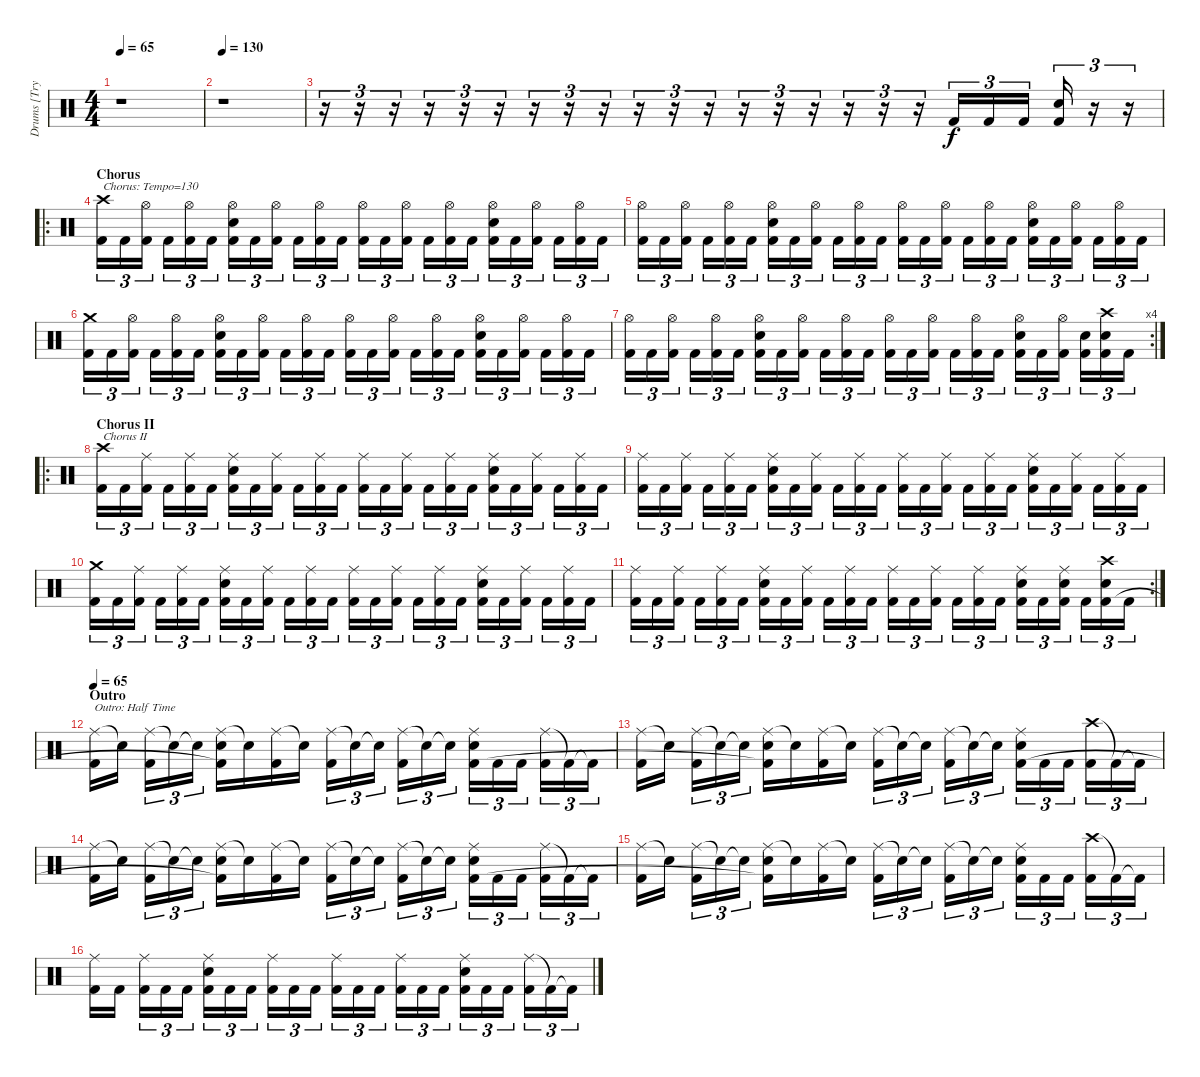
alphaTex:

\track ("Drums [Trym]" "Drums [Try") {instrument percussion}
\staff {score}
\articulation defaults
\ts (4 4)
\tempo 65
\clef neutral
\ks c
r.1{dy f} |
\tempo 130
r.1 |
r.16{tu (3 2)} r.16{tu (3 2)} r.16{tu (3 2)} r.16{tu (3 2)} r.16{tu (3 2)} r.16{tu (3 2)} r.16{tu (3 2)} r.16{tu (3 2)} r.16{tu (3 2)} r.16{tu (3 2)} r.16{tu (3 2)} r.16{tu (3 2)} r.16{tu (3 2)} r.16{tu (3 2)} r.16{tu (3 2)} r.16{tu (3 2)} r.16{tu (3 2)} r.16{tu (3 2)} "Kick (hit) 2".16{tu (3 2)} "Kick (hit) 2".16{tu (3 2)} "Kick (hit) 2".16{tu (3 2)} ("Electric Snare (hit)" "Kick (hit) 2").16{tu (3 2)} r.16{tu (3 2)} r.16{tu (3 2)} |
\ro
\section ("" "Chorus")
("Crash high (hit)" "Kick (hit) 2").16{tu (3 2) txt "Chorus: Tempo=130"} "Kick (hit) 2".16{tu (3 2)} ("Hi-Hat (open)" "Kick (hit) 2").16{tu (3 2)} "Kick (hit) 2".16{tu (3 2)} ("Hi-Hat (open)" "Kick (hit) 2").16{tu (3 2)} "Kick (hit) 2".16{tu (3 2)} ("Hi-Hat (open)" "Electric Snare (hit)" "Kick (hit) 2").16{tu (3 2)} "Kick (hit) 2".16{tu (3 2)} ("Hi-Hat (open)" "Kick (hit) 2").16{tu (3 2)} "Kick (hit) 2".16{tu (3 2)} ("Hi-Hat (open)" "Kick (hit) 2").16{tu (3 2)} "Kick (hit) 2".16{tu (3 2)} ("Hi-Hat (open)" "Kick (hit) 2").16{tu (3 2)} "Kick (hit) 2".16{tu (3 2)} ("Hi-Hat (open)" "Kick (hit) 2").16{tu (3 2)} "Kick (hit) 2".16{tu (3 2)} ("Hi-Hat (open)" "Kick (hit) 2").16{tu (3 2)} "Kick (hit) 2".16{tu (3 2)} ("Hi-Hat (open)" "Electric Snare (hit)" "Kick (hit) 2").16{tu (3 2)} "Kick (hit) 2".16{tu (3 2)} ("Hi-Hat (open)" "Kick (hit) 2").16{tu (3 2)} "Kick (hit) 2".16{tu (3 2)} ("Hi-Hat (open)" "Kick (hit) 2").16{tu (3 2)} "Kick (hit) 2".16{tu (3 2)} |
("Hi-Hat (open)" "Kick (hit) 2").16{tu (3 2)} "Kick (hit) 2".16{tu (3 2)} ("Hi-Hat (open)" "Kick (hit) 2").16{tu (3 2)} "Kick (hit) 2".16{tu (3 2)} ("Hi-Hat (open)" "Kick (hit) 2").16{tu (3 2)} "Kick (hit) 2".16{tu (3 2)} ("Hi-Hat (open)" "Electric Snare (hit)" "Kick (hit) 2").16{tu (3 2)} "Kick (hit) 2".16{tu (3 2)} ("Hi-Hat (open)" "Kick (hit) 2").16{tu (3 2)} "Kick (hit) 2".16{tu (3 2)} ("Hi-Hat (open)" "Kick (hit) 2").16{tu (3 2)} "Kick (hit) 2".16{tu (3 2)} ("Hi-Hat (open)" "Kick (hit) 2").16{tu (3 2)} "Kick (hit) 2".16{tu (3 2)} ("Hi-Hat (open)" "Kick (hit) 2").16{tu (3 2)} "Kick (hit) 2".16{tu (3 2)} ("Hi-Hat (open)" "Kick (hit) 2").16{tu (3 2)} "Kick (hit) 2".16{tu (3 2)} ("Hi-Hat (open)" "Electric Snare (hit)" "Kick (hit) 2").16{tu (3 2)} "Kick (hit) 2".16{tu (3 2)} ("Hi-Hat (open)" "Kick (hit) 2").16{tu (3 2)} "Kick (hit) 2".16{tu (3 2)} ("Hi-Hat (open)" "Kick (hit) 2").16{tu (3 2)} "Kick (hit) 2".16{tu (3 2)} |
("Crash medium (hit)" "Kick (hit) 2").16{tu (3 2)} "Kick (hit) 2".16{tu (3 2)} ("Hi-Hat (open)" "Kick (hit) 2").16{tu (3 2)} "Kick (hit) 2".16{tu (3 2)} ("Hi-Hat (open)" "Kick (hit) 2").16{tu (3 2)} "Kick (hit) 2".16{tu (3 2)} ("Hi-Hat (open)" "Electric Snare (hit)" "Kick (hit) 2").16{tu (3 2)} "Kick (hit) 2".16{tu (3 2)} ("Hi-Hat (open)" "Kick (hit) 2").16{tu (3 2)} "Kick (hit) 2".16{tu (3 2)} ("Hi-Hat (open)" "Kick (hit) 2").16{tu (3 2)} "Kick (hit) 2".16{tu (3 2)} ("Hi-Hat (open)" "Kick (hit) 2").16{tu (3 2)} "Kick (hit) 2".16{tu (3 2)} ("Hi-Hat (open)" "Kick (hit) 2").16{tu (3 2)} "Kick (hit) 2".16{tu (3 2)} ("Hi-Hat (open)" "Kick (hit) 2").16{tu (3 2)} "Kick (hit) 2".16{tu (3 2)} ("Hi-Hat (open)" "Electric Snare (hit)" "Kick (hit) 2").16{tu (3 2)} "Kick (hit) 2".16{tu (3 2)} ("Hi-Hat (open)" "Kick (hit) 2").16{tu (3 2)} "Kick (hit) 2".16{tu (3 2)} ("Hi-Hat (open)" "Kick (hit) 2").16{tu (3 2)} "Kick (hit) 2".16{tu (3 2)} |
\rc 4
("Hi-Hat (open)" "Kick (hit) 2").16{tu (3 2)} "Kick (hit) 2".16{tu (3 2)} ("Hi-Hat (open)" "Kick (hit) 2").16{tu (3 2)} "Kick (hit) 2".16{tu (3 2)} ("Hi-Hat (open)" "Kick (hit) 2").16{tu (3 2)} "Kick (hit) 2".16{tu (3 2)} ("Hi-Hat (open)" "Electric Snare (hit)" "Kick (hit) 2").16{tu (3 2)} "Kick (hit) 2".16{tu (3 2)} ("Hi-Hat (open)" "Kick (hit) 2").16{tu (3 2)} "Kick (hit) 2".16{tu (3 2)} ("Hi-Hat (open)" "Kick (hit) 2").16{tu (3 2)} "Kick (hit) 2".16{tu (3 2)} ("Hi-Hat (open)" "Kick (hit) 2").16{tu (3 2)} "Kick (hit) 2".16{tu (3 2)} ("Hi-Hat (open)" "Kick (hit) 2").16{tu (3 2)} "Kick (hit) 2".16{tu (3 2)} ("Hi-Hat (open)" "Kick (hit) 2").16{tu (3 2)} "Kick (hit) 2".16{tu (3 2)} ("Hi-Hat (open)" "Electric Snare (hit)" "Kick (hit) 2").16{tu (3 2)} "Kick (hit) 2".16{tu (3 2)} ("Hi-Hat (open)" "Kick (hit) 2").16{tu (3 2)} ("Electric Snare (hit)" "Kick (hit) 2").16{tu (3 2)} ("Crash high (hit)" "Electric Snare (hit)" "Kick (hit) 2").16{tu (3 2)} "Kick (hit) 2".16{tu (3 2)} |
\ro
\section ("" "Chorus II")
("Crash high (hit)" "Kick (hit) 2").16{tu (3 2) txt "Chorus II"} "Kick (hit) 2".16{tu (3 2)} ("Ride (middle)" "Kick (hit) 2").16{tu (3 2)} "Kick (hit) 2".16{tu (3 2)} ("Ride (middle)" "Kick (hit) 2").16{tu (3 2)} "Kick (hit) 2".16{tu (3 2)} ("Ride (middle)" "Electric Snare (hit)" "Kick (hit) 2").16{tu (3 2)} "Kick (hit) 2".16{tu (3 2)} ("Ride (middle)" "Kick (hit) 2").16{tu (3 2)} "Kick (hit) 2".16{tu (3 2)} ("Ride (middle)" "Kick (hit) 2").16{tu (3 2)} "Kick (hit) 2".16{tu (3 2)} ("Ride (middle)" "Kick (hit) 2").16{tu (3 2)} "Kick (hit) 2".16{tu (3 2)} ("Ride (middle)" "Kick (hit) 2").16{tu (3 2)} "Kick (hit) 2".16{tu (3 2)} ("Ride (middle)" "Kick (hit) 2").16{tu (3 2)} "Kick (hit) 2".16{tu (3 2)} ("Ride (middle)" "Electric Snare (hit)" "Kick (hit) 2").16{tu (3 2)} "Kick (hit) 2".16{tu (3 2)} ("Ride (middle)" "Kick (hit) 2").16{tu (3 2)} "Kick (hit) 2".16{tu (3 2)} ("Ride (middle)" "Kick (hit) 2").16{tu (3 2)} "Kick (hit) 2".16{tu (3 2)} |
("Ride (middle)" "Kick (hit) 2").16{tu (3 2)} "Kick (hit) 2".16{tu (3 2)} ("Ride (middle)" "Kick (hit) 2").16{tu (3 2)} "Kick (hit) 2".16{tu (3 2)} ("Ride (middle)" "Kick (hit) 2").16{tu (3 2)} "Kick (hit) 2".16{tu (3 2)} ("Ride (middle)" "Electric Snare (hit)" "Kick (hit) 2").16{tu (3 2)} "Kick (hit) 2".16{tu (3 2)} ("Ride (middle)" "Kick (hit) 2").16{tu (3 2)} "Kick (hit) 2".16{tu (3 2)} ("Ride (middle)" "Kick (hit) 2").16{tu (3 2)} "Kick (hit) 2".16{tu (3 2)} ("Ride (middle)" "Kick (hit) 2").16{tu (3 2)} "Kick (hit) 2".16{tu (3 2)} ("Ride (middle)" "Kick (hit) 2").16{tu (3 2)} "Kick (hit) 2".16{tu (3 2)} ("Ride (middle)" "Kick (hit) 2").16{tu (3 2)} "Kick (hit) 2".16{tu (3 2)} ("Ride (middle)" "Electric Snare (hit)" "Kick (hit) 2").16{tu (3 2)} "Kick (hit) 2".16{tu (3 2)} ("Ride (middle)" "Kick (hit) 2").16{tu (3 2)} "Kick (hit) 2".16{tu (3 2)} ("Ride (middle)" "Kick (hit) 2").16{tu (3 2)} "Kick (hit) 2".16{tu (3 2)} |
("Crash medium (hit)" "Kick (hit) 2").16{tu (3 2)} "Kick (hit) 2".16{tu (3 2)} ("Ride (middle)" "Kick (hit) 2").16{tu (3 2)} "Kick (hit) 2".16{tu (3 2)} ("Ride (middle)" "Kick (hit) 2").16{tu (3 2)} "Kick (hit) 2".16{tu (3 2)} ("Ride (middle)" "Electric Snare (hit)" "Kick (hit) 2").16{tu (3 2)} "Kick (hit) 2".16{tu (3 2)} ("Ride (middle)" "Kick (hit) 2").16{tu (3 2)} "Kick (hit) 2".16{tu (3 2)} ("Ride (middle)" "Kick (hit) 2").16{tu (3 2)} "Kick (hit) 2".16{tu (3 2)} ("Ride (middle)" "Kick (hit) 2").16{tu (3 2)} "Kick (hit) 2".16{tu (3 2)} ("Ride (middle)" "Kick (hit) 2").16{tu (3 2)} "Kick (hit) 2".16{tu (3 2)} ("Ride (middle)" "Kick (hit) 2").16{tu (3 2)} "Kick (hit) 2".16{tu (3 2)} ("Ride (middle)" "Electric Snare (hit)" "Kick (hit) 2").16{tu (3 2)} "Kick (hit) 2".16{tu (3 2)} ("Ride (middle)" "Kick (hit) 2").16{tu (3 2)} "Kick (hit) 2".16{tu (3 2)} ("Ride (middle)" "Kick (hit) 2").16{tu (3 2)} "Kick (hit) 2".16{tu (3 2)} |
\rc 2
("Ride (middle)" "Kick (hit) 2").16{tu (3 2)} "Kick (hit) 2".16{tu (3 2)} ("Ride (middle)" "Kick (hit) 2").16{tu (3 2)} "Kick (hit) 2".16{tu (3 2)} ("Ride (middle)" "Kick (hit) 2").16{tu (3 2)} "Kick (hit) 2".16{tu (3 2)} ("Ride (middle)" "Electric Snare (hit)" "Kick (hit) 2").16{tu (3 2)} "Kick (hit) 2".16{tu (3 2)} ("Ride (middle)" "Kick (hit) 2").16{tu (3 2)} "Kick (hit) 2".16{tu (3 2)} ("Ride (middle)" "Kick (hit) 2").16{tu (3 2)} "Kick (hit) 2".16{tu (3 2)} ("Ride (middle)" "Kick (hit) 2").16{tu (3 2)} "Kick (hit) 2".16{tu (3 2)} ("Ride (middle)" "Kick (hit) 2").16{tu (3 2)} "Kick (hit) 2".16{tu (3 2)} ("Ride (middle)" "Kick (hit) 2").16{tu (3 2)} "Kick (hit) 2".16{tu (3 2)} ("Ride (middle)" "Electric Snare (hit)" "Kick (hit) 2").16{tu (3 2)} "Kick (hit) 2".16{tu (3 2)} ("Ride (middle)" "Electric Snare (hit)" "Kick (hit) 2").16{tu (3 2)} "Kick (hit) 2".16{tu (3 2)} ("Crash high (hit)" "Electric Snare (hit)" "Kick (hit) 2").16{tu (3 2)} "Kick (hit) 2".16{tu (3 2)} |
\section ("" "Outro")
\tempo 65
("Ride (middle)" "Kick (hit) 2").16{txt "Outro: Half Time"} "Snare (hit)"{t}.16 ("Ride (middle)" "Kick (hit) 2").16{tu (3 2)} "Snare (hit)"{t}.16{tu (3 2)} "Snare (hit)"{t}.16{tu (3 2)} ("Ride (middle)" "Electric Snare (hit)" "Kick (hit) 2"{t}).16 "Snare (hit)"{t}.16 ("Ride (middle)" "Kick (hit) 2").16 "Snare (hit)"{t}.16 ("Ride (middle)" "Kick (hit) 2").16{tu (3 2)} "Snare (hit)"{t}.16{tu (3 2)} "Snare (hit)"{t}.16{tu (3 2)} ("Ride (middle)" "Kick (hit) 2").16{tu (3 2)} "Snare (hit)"{t}.16{tu (3 2)} "Snare (hit)"{t}.16{tu (3 2)} ("Ride (middle)" "Electric Snare (hit)" "Kick (hit) 2").16{tu (3 2)} "Kick (hit) 2".16{tu (3 2)} "Kick (hit) 2".16{tu (3 2)} ("Ride (middle)" "Kick (hit) 2").16{tu (3 2)} "Kick (hit) 2"{t}.16{tu (3 2)} "Kick (hit) 2"{t}.16{tu (3 2)} |
("Ride (middle)" "Kick (hit) 2").16 "Snare (hit)"{t}.16 ("Ride (middle)" "Kick (hit) 2").16{tu (3 2)} "Snare (hit)"{t}.16{tu (3 2)} "Snare (hit)"{t}.16{tu (3 2)} ("Ride (middle)" "Electric Snare (hit)" "Kick (hit) 2"{t}).16 "Snare (hit)"{t}.16 ("Ride (middle)" "Kick (hit) 2").16 "Snare (hit)"{t}.16 ("Ride (middle)" "Kick (hit) 2").16{tu (3 2)} "Snare (hit)"{t}.16{tu (3 2)} "Snare (hit)"{t}.16{tu (3 2)} ("Ride (middle)" "Kick (hit) 2").16{tu (3 2)} "Snare (hit)"{t}.16{tu (3 2)} "Snare (hit)"{t}.16{tu (3 2)} ("Ride (middle)" "Electric Snare (hit)" "Kick (hit) 2").16{tu (3 2)} "Kick (hit) 2".16{tu (3 2)} "Kick (hit) 2".16{tu (3 2)} ("Crash high (hit)" "Kick (hit) 2").16{tu (3 2)} "Kick (hit) 2"{t}.16{tu (3 2)} "Kick (hit) 2"{t}.16{tu (3 2)} |
("Ride (middle)" "Kick (hit) 2").16 "Snare (hit)"{t}.16 ("Ride (middle)" "Kick (hit) 2").16{tu (3 2)} "Snare (hit)"{t}.16{tu (3 2)} "Snare (hit)"{t}.16{tu (3 2)} ("Ride (middle)" "Electric Snare (hit)" "Kick (hit) 2"{t}).16 "Snare (hit)"{t}.16 ("Ride (middle)" "Kick (hit) 2").16 "Snare (hit)"{t}.16 ("Ride (middle)" "Kick (hit) 2").16{tu (3 2)} "Snare (hit)"{t}.16{tu (3 2)} "Snare (hit)"{t}.16{tu (3 2)} ("Ride (middle)" "Kick (hit) 2").16{tu (3 2)} "Snare (hit)"{t}.16{tu (3 2)} "Snare (hit)"{t}.16{tu (3 2)} ("Ride (middle)" "Electric Snare (hit)" "Kick (hit) 2").16{tu (3 2)} "Kick (hit) 2".16{tu (3 2)} "Kick (hit) 2".16{tu (3 2)} ("Ride (middle)" "Kick (hit) 2").16{tu (3 2)} "Kick (hit) 2"{t}.16{tu (3 2)} "Kick (hit) 2"{t}.16{tu (3 2)} |
("Ride (middle)" "Kick (hit) 2").16 "Snare (hit)"{t}.16 ("Ride (middle)" "Kick (hit) 2").16{tu (3 2)} "Snare (hit)"{t}.16{tu (3 2)} "Snare (hit)"{t}.16{tu (3 2)} ("Ride (middle)" "Electric Snare (hit)" "Kick (hit) 2"{t}).16 "Snare (hit)"{t}.16 ("Ride (middle)" "Kick (hit) 2").16 "Snare (hit)"{t}.16 ("Ride (middle)" "Kick (hit) 2").16{tu (3 2)} "Snare (hit)"{t}.16{tu (3 2)} "Snare (hit)"{t}.16{tu (3 2)} ("Ride (middle)" "Kick (hit) 2").16{tu (3 2)} "Snare (hit)"{t}.16{tu (3 2)} "Snare (hit)"{t}.16{tu (3 2)} ("Ride (middle)" "Electric Snare (hit)" "Kick (hit) 2").16{tu (3 2)} "Kick (hit) 2".16{tu (3 2)} "Kick (hit) 2".16{tu (3 2)} ("Crash high (hit)" "Kick (hit) 2").16{tu (3 2)} "Kick (hit) 2"{t}.16{tu (3 2)} "Kick (hit) 2"{t}.16{tu (3 2)} |
("Ride (middle)" "Kick (hit) 2").16 "Kick (hit) 2".16 ("Ride (middle)" "Kick (hit) 2").16{tu (3 2)} "Kick (hit) 2".16{tu (3 2)} "Kick (hit) 2".16{tu (3 2)} ("Ride (middle)" "Electric Snare (hit)" "Kick (hit) 2").16{tu (3 2)} "Kick (hit) 2".16{tu (3 2)} "Kick (hit) 2".16{tu (3 2)} ("Ride (middle)" "Kick (hit) 2").16{tu (3 2)} "Kick (hit) 2".16{tu (3 2)} "Kick (hit) 2".16{tu (3 2)} ("Ride (middle)" "Kick (hit) 2").16{tu (3 2)} "Kick (hit) 2".16{tu (3 2)} "Kick (hit) 2".16{tu (3 2)} ("Ride (middle)" "Kick (hit) 2").16{tu (3 2)} "Kick (hit) 2".16{tu (3 2)} "Kick (hit) 2".16{tu (3 2)} ("Ride (middle)" "Electric Snare (hit)" "Kick (hit) 2").16{tu (3 2)} "Kick (hit) 2".16{tu (3 2)} "Kick (hit) 2".16{tu (3 2)} ("Ride (middle)" "Kick (hit) 2").16{tu (3 2)} "Kick (hit) 2"{t}.16{tu (3 2)} "Kick (hit) 2"{t}.16{tu (3 2)}
